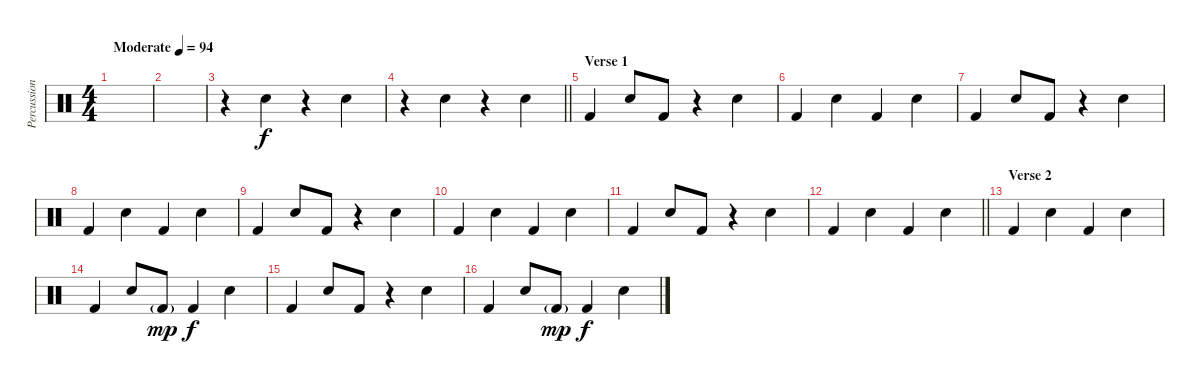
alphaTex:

\track ("Percussion" "Percussion") {instrument percussion}
\staff {score}
\articulation defaults
\ts (4 4)
\tempo (94 "Moderate")
\clef neutral
\ks c
|
|
r.4 "Snare (hit) 2".4 r.4 "Snare (hit) 2".4 |
\barLineRight lightlight
r.4 "Snare (hit) 2".4 r.4 "Snare (hit) 2".4 |
\section ("" "Verse 1")
"Kick (hit) 2".4 "Snare (hit) 2".8 "Kick (hit) 2".8 r.4 "Snare (hit) 2".4 |
"Kick (hit) 2".4 "Snare (hit) 2".4 "Kick (hit) 2".4 "Snare (hit) 2".4 |
"Kick (hit) 2".4 "Snare (hit) 2".8 "Kick (hit) 2".8 r.4 "Snare (hit) 2".4 |
"Kick (hit) 2".4 "Snare (hit) 2".4 "Kick (hit) 2".4 "Snare (hit) 2".4 |
"Kick (hit) 2".4 "Snare (hit) 2".8 "Kick (hit) 2".8 r.4 "Snare (hit) 2".4 |
"Kick (hit) 2".4 "Snare (hit) 2".4 "Kick (hit) 2".4 "Snare (hit) 2".4 |
"Kick (hit) 2".4 "Snare (hit) 2".8 "Kick (hit) 2".8 r.4 "Snare (hit) 2".4 |
\barLineRight lightlight "Kick (hit) 2".4 "Snare (hit) 2".4 "Kick (hit) 2".4 "Snare (hit) 2".4
|
\section ("" "Verse 2")
"Kick (hit) 2".4 "Snare (hit) 2".4 "Kick (hit) 2".4 "Snare (hit) 2".4 |
"Kick (hit) 2".4 "Snare (hit) 2".8 "Kick (hit) 2"{g}.8{dy mp} "Kick (hit) 2".4{dy f} "Snare (hit) 2".4 |
"Kick (hit) 2".4 "Snare (hit) 2".8 "Kick (hit) 2".8 r.4 "Snare (hit) 2".4 |
"Kick (hit) 2".4 "Snare (hit) 2".8 "Kick (hit) 2"{g}.8{dy mp} "Kick (hit) 2".4{dy f} "Snare (hit) 2".4
